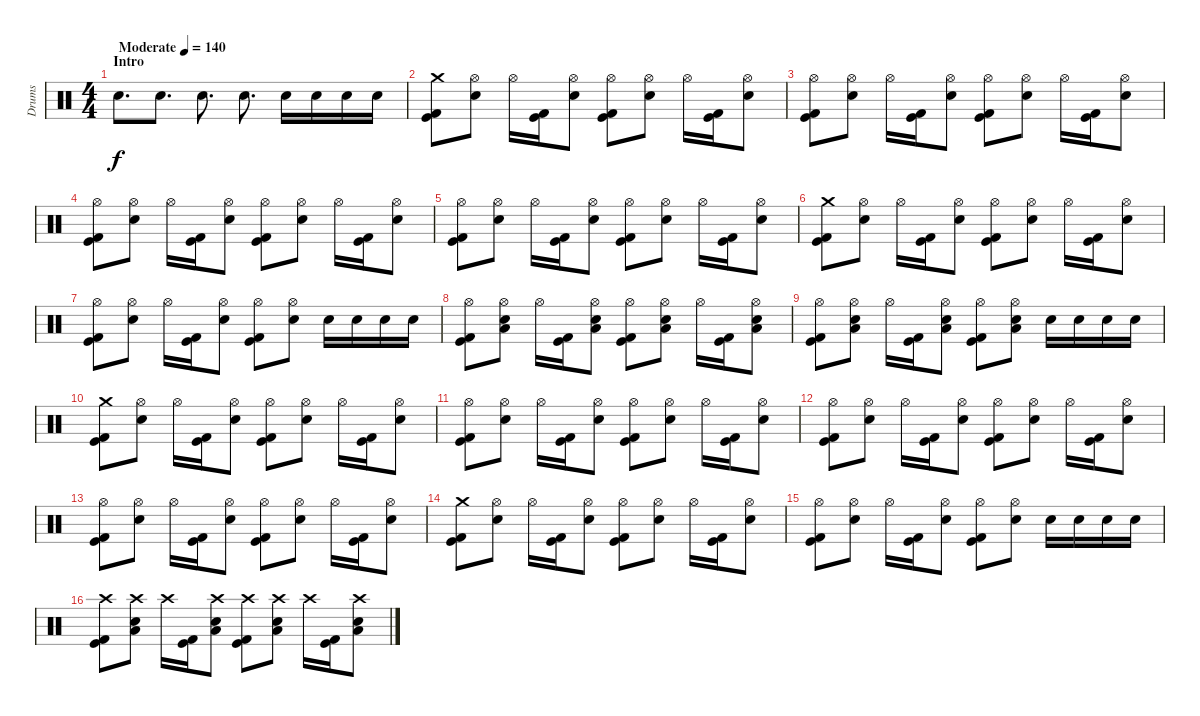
\track ("Drums" "Drums") {instrument percussion}
\staff {score}
\articulation defaults
\ts (4 4)
\section ("" "Intro")
\tempo (140 "Moderate")
\clef neutral
\ks c "Electric Snare (hit)".8{d dy f} "Electric Snare (hit)".8{d} "Electric Snare (hit)".8{d} "Electric Snare (hit)".8{d} "Electric Snare (hit)".16 "Electric Snare (hit)".16 "Electric Snare (hit)".16 "Electric Snare (hit)".16
|
("Crash medium (hit)" "Kick (hit)" "Kick (hit) 2").8 ("Hi-Hat (open)" "Electric Snare (hit)").8 "Hi-Hat (open)".16 ("Kick (hit)" "Kick (hit) 2").16 ("Hi-Hat (open)" "Electric Snare (hit)").8 ("Hi-Hat (open)" "Kick (hit)" "Kick (hit) 2").8 ("Hi-Hat (open)" "Electric Snare (hit)").8 "Hi-Hat (open)".16 ("Kick (hit)" "Kick (hit) 2").16 ("Hi-Hat (open)" "Electric Snare (hit)").8 |
("Hi-Hat (open)" "Kick (hit)" "Kick (hit) 2").8 ("Hi-Hat (open)" "Electric Snare (hit)").8 "Hi-Hat (open)".16 ("Kick (hit)" "Kick (hit) 2").16 ("Hi-Hat (open)" "Electric Snare (hit)").8 ("Hi-Hat (open)" "Kick (hit)" "Kick (hit) 2").8 ("Hi-Hat (open)" "Electric Snare (hit)").8 "Hi-Hat (open)".16 ("Kick (hit)" "Kick (hit) 2").16 ("Hi-Hat (open)" "Electric Snare (hit)").8 |
("Hi-Hat (open)" "Kick (hit)" "Kick (hit) 2").8 ("Hi-Hat (open)" "Electric Snare (hit)").8 "Hi-Hat (open)".16 ("Kick (hit)" "Kick (hit) 2").16 ("Hi-Hat (open)" "Electric Snare (hit)").8 ("Hi-Hat (open)" "Kick (hit)" "Kick (hit) 2").8 ("Hi-Hat (open)" "Electric Snare (hit)").8 "Hi-Hat (open)".16 ("Kick (hit)" "Kick (hit) 2").16 ("Hi-Hat (open)" "Electric Snare (hit)").8 |
("Hi-Hat (open)" "Kick (hit)" "Kick (hit) 2").8 ("Hi-Hat (open)" "Electric Snare (hit)").8 "Hi-Hat (open)".16 ("Kick (hit)" "Kick (hit) 2").16 ("Hi-Hat (open)" "Electric Snare (hit)").8 ("Hi-Hat (open)" "Kick (hit)" "Kick (hit) 2").8 ("Hi-Hat (open)" "Electric Snare (hit)").8 "Hi-Hat (open)".16 ("Kick (hit)" "Kick (hit) 2").16 ("Hi-Hat (open)" "Electric Snare (hit)").8 |
("Crash medium (hit)" "Kick (hit)" "Kick (hit) 2").8 ("Hi-Hat (open)" "Electric Snare (hit)").8 "Hi-Hat (open)".16 ("Kick (hit)" "Kick (hit) 2").16 ("Hi-Hat (open)" "Electric Snare (hit)").8 ("Hi-Hat (open)" "Kick (hit)" "Kick (hit) 2").8 ("Hi-Hat (open)" "Electric Snare (hit)").8 "Hi-Hat (open)".16 ("Kick (hit)" "Kick (hit) 2").16 ("Hi-Hat (open)" "Electric Snare (hit)").8 |
("Hi-Hat (open)" "Kick (hit)" "Kick (hit) 2").8 ("Hi-Hat (open)" "Electric Snare (hit)").8 "Hi-Hat (open)".16 ("Kick (hit)" "Kick (hit) 2").16 ("Hi-Hat (open)" "Electric Snare (hit)").8 ("Hi-Hat (open)" "Kick (hit)" "Kick (hit) 2").8 ("Hi-Hat (open)" "Electric Snare (hit)").8 "Electric Snare (hit)".16 "Electric Snare (hit)".16 "Electric Snare (hit)".16 "Electric Snare (hit)".16 |
("Hi-Hat (open)" "Kick (hit)" "Kick (hit) 2").8 ("Hi-Hat (open)" "Electric Snare (hit)" "Low Floor Tom (hit)").8 "Hi-Hat (open)".16 ("Kick (hit)" "Kick (hit) 2").16 ("Hi-Hat (open)" "Electric Snare (hit)" "Low Floor Tom (hit)").8 ("Hi-Hat (open)" "Kick (hit)" "Kick (hit) 2").8 ("Hi-Hat (open)" "Electric Snare (hit)" "Low Floor Tom (hit)").8 "Hi-Hat (open)".16 ("Kick (hit)" "Kick (hit) 2").16 ("Hi-Hat (open)" "Electric Snare (hit)" "Low Floor Tom (hit)").8 |
("Hi-Hat (open)" "Kick (hit)" "Kick (hit) 2").8 ("Hi-Hat (open)" "Electric Snare (hit)" "Low Floor Tom (hit)").8 "Hi-Hat (open)".16 ("Kick (hit)" "Kick (hit) 2").16 ("Hi-Hat (open)" "Electric Snare (hit)" "Low Floor Tom (hit)").8 ("Hi-Hat (open)" "Kick (hit)" "Kick (hit) 2").8 ("Hi-Hat (open)" "Electric Snare (hit)" "Low Floor Tom (hit)").8 "Electric Snare (hit)".16 "Electric Snare (hit)".16 "Electric Snare (hit)".16 "Electric Snare (hit)".16 |
("Crash medium (hit)" "Kick (hit)" "Kick (hit) 2").8 ("Hi-Hat (open)" "Electric Snare (hit)").8 "Hi-Hat (open)".16 ("Kick (hit)" "Kick (hit) 2").16 ("Hi-Hat (open)" "Electric Snare (hit)").8 ("Hi-Hat (open)" "Kick (hit)" "Kick (hit) 2").8 ("Hi-Hat (open)" "Electric Snare (hit)").8 "Hi-Hat (open)".16 ("Kick (hit)" "Kick (hit) 2").16 ("Hi-Hat (open)" "Electric Snare (hit)").8 |
("Hi-Hat (open)" "Kick (hit)" "Kick (hit) 2").8 ("Hi-Hat (open)" "Electric Snare (hit)").8 "Hi-Hat (open)".16 ("Kick (hit)" "Kick (hit) 2").16 ("Hi-Hat (open)" "Electric Snare (hit)").8 ("Hi-Hat (open)" "Kick (hit)" "Kick (hit) 2").8 ("Hi-Hat (open)" "Electric Snare (hit)").8 "Hi-Hat (open)".16 ("Kick (hit)" "Kick (hit) 2").16 ("Hi-Hat (open)" "Electric Snare (hit)").8 |
("Hi-Hat (open)" "Kick (hit)" "Kick (hit) 2").8 ("Hi-Hat (open)" "Electric Snare (hit)").8 "Hi-Hat (open)".16 ("Kick (hit)" "Kick (hit) 2").16 ("Hi-Hat (open)" "Electric Snare (hit)").8 ("Hi-Hat (open)" "Kick (hit)" "Kick (hit) 2").8 ("Hi-Hat (open)" "Electric Snare (hit)").8 "Hi-Hat (open)".16 ("Kick (hit)" "Kick (hit) 2").16 ("Hi-Hat (open)" "Electric Snare (hit)").8 |
("Hi-Hat (open)" "Kick (hit)" "Kick (hit) 2").8 ("Hi-Hat (open)" "Electric Snare (hit)").8 "Hi-Hat (open)".16 ("Kick (hit)" "Kick (hit) 2").16 ("Hi-Hat (open)" "Electric Snare (hit)").8 ("Hi-Hat (open)" "Kick (hit)" "Kick (hit) 2").8 ("Hi-Hat (open)" "Electric Snare (hit)").8 "Hi-Hat (open)".16 ("Kick (hit)" "Kick (hit) 2").16 ("Hi-Hat (open)" "Electric Snare (hit)").8 |
("Crash medium (hit)" "Kick (hit)" "Kick (hit) 2").8 ("Hi-Hat (open)" "Electric Snare (hit)").8 "Hi-Hat (open)".16 ("Kick (hit)" "Kick (hit) 2").16 ("Hi-Hat (open)" "Electric Snare (hit)").8 ("Hi-Hat (open)" "Kick (hit)" "Kick (hit) 2").8 ("Hi-Hat (open)" "Electric Snare (hit)").8 "Hi-Hat (open)".16 ("Kick (hit)" "Kick (hit) 2").16 ("Hi-Hat (open)" "Electric Snare (hit)").8 |
("Hi-Hat (open)" "Kick (hit)" "Kick (hit) 2").8 ("Hi-Hat (open)" "Electric Snare (hit)").8 "Hi-Hat (open)".16 ("Kick (hit)" "Kick (hit) 2").16 ("Hi-Hat (open)" "Electric Snare (hit)").8 ("Hi-Hat (open)" "Kick (hit)" "Kick (hit) 2").8 ("Hi-Hat (open)" "Electric Snare (hit)").8 "Electric Snare (hit)".16 "Electric Snare (hit)".16 "Electric Snare (hit)".16 "Electric Snare (hit)".16 |
("Crash high (hit)" "Kick (hit)" "Kick (hit) 2").8 ("Crash high (hit)" "Electric Snare (hit)" "Low Floor Tom (hit)").8 "Crash high (hit)".16 ("Kick (hit)" "Kick (hit) 2").16 ("Crash high (hit)" "Electric Snare (hit)" "Low Floor Tom (hit)").8 ("Crash high (hit)" "Kick (hit)" "Kick (hit) 2").8 ("Crash high (hit)" "Electric Snare (hit)" "Low Floor Tom (hit)").8 "Crash high (hit)".16 ("Kick (hit)" "Kick (hit) 2").16 ("Crash high (hit)" "Electric Snare (hit)" "Low Floor Tom (hit)").8
